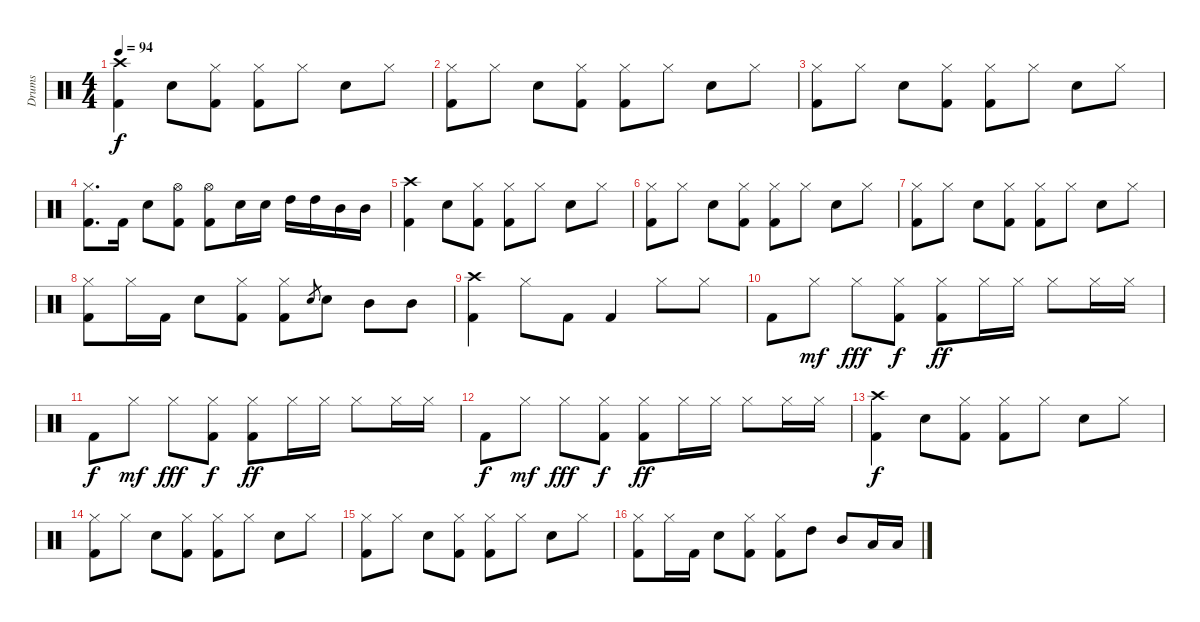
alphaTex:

\track ("Drums" "Drums") {instrument percussion}
\staff {score}
\articulation defaults
\ts (4 4)
\tempo 94
\clef neutral
\ks c
("Crash high (hit)" "Kick (hit) 2").4{dy f} "Snare (hit) 2".8 ("Hi-Hat (closed)" "Kick (hit) 2").8 ("Hi-Hat (closed)" "Kick (hit) 2").8 "Hi-Hat (closed)".8 "Snare (hit) 2".8 "Hi-Hat (closed)".8 |
("Hi-Hat (closed)" "Kick (hit) 2").8 "Hi-Hat (closed)".8 "Snare (hit) 2".8 ("Hi-Hat (closed)" "Kick (hit) 2").8 ("Hi-Hat (closed)" "Kick (hit) 2").8 "Hi-Hat (closed)".8 "Snare (hit) 2".8 "Hi-Hat (closed)".8 |
("Hi-Hat (closed)" "Kick (hit) 2").8 "Hi-Hat (closed)".8 "Snare (hit) 2".8 ("Hi-Hat (closed)" "Kick (hit) 2").8 ("Hi-Hat (closed)" "Kick (hit) 2").8 "Hi-Hat (closed)".8 "Snare (hit) 2".8 "Hi-Hat (closed)".8 |
("Hi-Hat (closed)" "Kick (hit) 2").8{d} "Kick (hit) 2".16 "Snare (hit) 2".8 ("Hi-Hat (open)" "Kick (hit) 2").8 ("Hi-Hat (open)" "Kick (hit) 2").8 "Snare (hit) 2".16 "Snare (hit) 2".16 "High Tom (hit)".16 "High Tom (hit)".16 "Mid Tom (hit)".16 "Mid Tom (hit)".16 |
("Crash high (hit)" "Kick (hit) 2").4 "Snare (hit) 2".8 ("Hi-Hat (closed)" "Kick (hit) 2").8 ("Hi-Hat (closed)" "Kick (hit) 2").8 "Hi-Hat (closed)".8 "Snare (hit) 2".8 "Hi-Hat (closed)".8 |
("Hi-Hat (closed)" "Kick (hit) 2").8 "Hi-Hat (closed)".8 "Snare (hit) 2".8 ("Hi-Hat (closed)" "Kick (hit) 2").8 ("Hi-Hat (closed)" "Kick (hit) 2").8 "Hi-Hat (closed)".8 "Snare (hit) 2".8 "Hi-Hat (closed)".8 |
("Hi-Hat (closed)" "Kick (hit) 2").8 "Hi-Hat (closed)".8 "Snare (hit) 2".8 ("Hi-Hat (closed)" "Kick (hit) 2").8 ("Hi-Hat (closed)" "Kick (hit) 2").8 "Hi-Hat (closed)".8 "Snare (hit) 2".8 "Hi-Hat (closed)".8 |
("Hi-Hat (closed)" "Kick (hit) 2").8 "Hi-Hat (closed)".16 "Kick (hit) 2".16 "Snare (hit) 2".8 ("Hi-Hat (closed)" "Kick (hit) 2").8 ("Hi-Hat (closed)" "Kick (hit) 2").8 "Snare (hit) 2".8{gr} "Snare (hit) 2".8 "Mid Tom (hit)".8 "Mid Tom (hit)".8 |
("Crash high (hit)" "Kick (hit) 2").4 "Hi-Hat (closed)".8 "Kick (hit) 2".8 "Kick (hit) 2".4 "Hi-Hat (closed)".8 "Hi-Hat (closed)".8 |
"Kick (hit) 2".8 "Hi-Hat (closed)".8{dy mf} "Hi-Hat (closed)".8{dy fff} ("Hi-Hat (closed)" "Kick (hit) 2").8{dy f} ("Hi-Hat (closed)" "Kick (hit) 2").8{dy ff} "Hi-Hat (closed)".16 "Hi-Hat (closed)".16 "Hi-Hat (closed)".8 "Hi-Hat (closed)".16 "Hi-Hat (closed)".16 |
"Kick (hit) 2".8{dy f} "Hi-Hat (closed)".8{dy mf} "Hi-Hat (closed)".8{dy fff} ("Hi-Hat (closed)" "Kick (hit) 2").8{dy f} ("Hi-Hat (closed)" "Kick (hit) 2").8{dy ff} "Hi-Hat (closed)".16 "Hi-Hat (closed)".16 "Hi-Hat (closed)".8 "Hi-Hat (closed)".16 "Hi-Hat (closed)".16 |
"Kick (hit) 2".8{dy f} "Hi-Hat (closed)".8{dy mf} "Hi-Hat (closed)".8{dy fff} ("Hi-Hat (closed)" "Kick (hit) 2").8{dy f} ("Hi-Hat (closed)" "Kick (hit) 2").8{dy ff} "Hi-Hat (closed)".16 "Hi-Hat (closed)".16 "Hi-Hat (closed)".8 "Hi-Hat (closed)".16 "Hi-Hat (closed)".16 |
("Crash high (hit)" "Kick (hit) 2").4{dy f} "Snare (hit) 2".8 ("Hi-Hat (closed)" "Kick (hit) 2").8 ("Hi-Hat (closed)" "Kick (hit) 2").8 "Hi-Hat (closed)".8 "Snare (hit) 2".8 "Hi-Hat (closed)".8 |
("Hi-Hat (closed)" "Kick (hit) 2").8 "Hi-Hat (closed)".8 "Snare (hit) 2".8 ("Hi-Hat (closed)" "Kick (hit) 2").8 ("Hi-Hat (closed)" "Kick (hit) 2").8 "Hi-Hat (closed)".8 "Snare (hit) 2".8 "Hi-Hat (closed)".8 |
("Hi-Hat (closed)" "Kick (hit) 2").8 "Hi-Hat (closed)".8 "Snare (hit) 2".8 ("Hi-Hat (closed)" "Kick (hit) 2").8 ("Hi-Hat (closed)" "Kick (hit) 2").8 "Hi-Hat (closed)".8 "Snare (hit) 2".8 "Hi-Hat (closed)".8 |
("Hi-Hat (closed)" "Kick (hit) 2").8 "Hi-Hat (closed)".16 "Kick (hit) 2".16 "Snare (hit) 2".8 ("Hi-Hat (closed)" "Kick (hit) 2").8 ("Hi-Hat (closed)" "Kick (hit) 2").8 "High Tom (hit)".8 "Mid Tom (hit)".8 "Low Tom (hit)".16 "Low Tom (hit)".16
